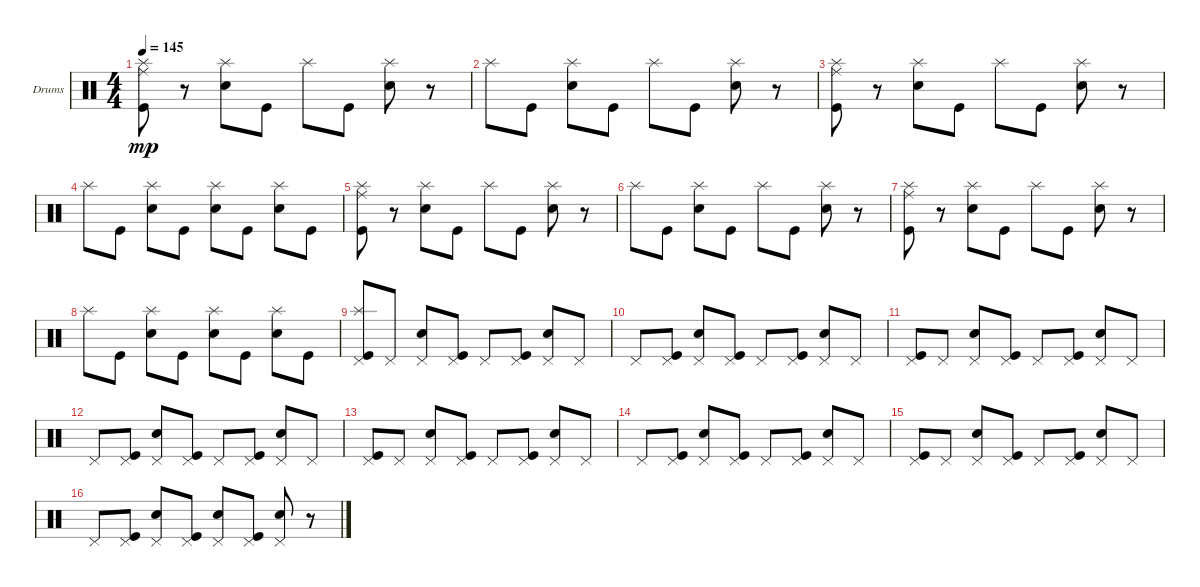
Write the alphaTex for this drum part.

\defaultSystemsLayout 4
\bracketExtendMode groupsimilarinstruments
\firstSystemTrackNameOrientation horizontal
\otherSystemsTrackNameOrientation horizontal
\track ("Drumkit" "Drums") {instrument percussion}
\staff {score}
\articulation defaults
\ts (4 4)
\tempo 145
\clef neutral
\ks c
("Kick (hit)" "Ride (middle)" "Splash (hit)").8{dy mp} r.8 ("Snare (hit) 2" "Splash (hit)").8 "Kick (hit)".8 "Splash (hit)".8 "Kick (hit)".8 ("Snare (hit) 2" "Splash (hit)").8 r.8 |
"Splash (hit)".8 "Kick (hit)".8 ("Snare (hit) 2" "Splash (hit)").8 "Kick (hit)".8 "Splash (hit)".8 "Kick (hit)".8 ("Snare (hit) 2" "Splash (hit)").8 r.8 |
("Kick (hit)" "Ride (middle)" "Splash (hit)").8 r.8 ("Snare (hit) 2" "Splash (hit)").8 "Kick (hit)".8 "Splash (hit)".8 "Kick (hit)".8 ("Snare (hit) 2" "Splash (hit)").8 r.8 |
"Splash (hit)".8 "Kick (hit)".8 ("Snare (hit) 2" "Splash (hit)").8 "Kick (hit)".8 ("Splash (hit)" "Snare (hit) 2").8 "Kick (hit)".8 ("Snare (hit) 2" "Splash (hit)").8 "Kick (hit)".8 |
("Kick (hit)" "Ride (middle)" "Splash (hit)").8 r.8 ("Snare (hit) 2" "Splash (hit)").8 "Kick (hit)".8 "Splash (hit)".8 "Kick (hit)".8 ("Snare (hit) 2" "Splash (hit)").8 r.8 |
"Splash (hit)".8 "Kick (hit)".8 ("Snare (hit) 2" "Splash (hit)").8 "Kick (hit)".8 "Splash (hit)".8 "Kick (hit)".8 ("Snare (hit) 2" "Splash (hit)").8 r.8 |
("Kick (hit)" "Ride (middle)" "Splash (hit)").8 r.8 ("Snare (hit) 2" "Splash (hit)").8 "Kick (hit)".8 "Splash (hit)".8 "Kick (hit)".8 ("Snare (hit) 2" "Splash (hit)").8 r.8 |
"Splash (hit)".8 "Kick (hit)".8 ("Snare (hit) 2" "Splash (hit)").8 "Kick (hit)".8 ("Splash (hit)" "Snare (hit) 2").8 "Kick (hit)".8 ("Snare (hit) 2" "Splash (hit)").8 "Kick (hit)".8 |
("Pedal Hi-Hat (hit)" "Kick (hit)" "Splash (hit)").8 "Pedal Hi-Hat (hit)".8 ("Pedal Hi-Hat (hit)" "Snare (hit) 2").8 ("Pedal Hi-Hat (hit)" "Kick (hit)").8 "Pedal Hi-Hat (hit)".8 ("Pedal Hi-Hat (hit)" "Kick (hit)").8 ("Pedal Hi-Hat (hit)" "Snare (hit) 2").8 "Pedal Hi-Hat (hit)".8 |
"Pedal Hi-Hat (hit)".8 ("Pedal Hi-Hat (hit)" "Kick (hit)").8 ("Pedal Hi-Hat (hit)" "Snare (hit) 2").8 ("Pedal Hi-Hat (hit)" "Kick (hit)").8 "Pedal Hi-Hat (hit)".8 ("Pedal Hi-Hat (hit)" "Kick (hit)").8 ("Pedal Hi-Hat (hit)" "Snare (hit) 2").8 "Pedal Hi-Hat (hit)".8 |
("Pedal Hi-Hat (hit)" "Kick (hit)").8 "Pedal Hi-Hat (hit)".8 ("Pedal Hi-Hat (hit)" "Snare (hit) 2").8 ("Pedal Hi-Hat (hit)" "Kick (hit)").8 "Pedal Hi-Hat (hit)".8 ("Pedal Hi-Hat (hit)" "Kick (hit)").8 ("Pedal Hi-Hat (hit)" "Snare (hit) 2").8 "Pedal Hi-Hat (hit)".8 |
"Pedal Hi-Hat (hit)".8 ("Pedal Hi-Hat (hit)" "Kick (hit)").8 ("Pedal Hi-Hat (hit)" "Snare (hit) 2").8 ("Pedal Hi-Hat (hit)" "Kick (hit)").8 "Pedal Hi-Hat (hit)".8 ("Pedal Hi-Hat (hit)" "Kick (hit)").8 ("Pedal Hi-Hat (hit)" "Snare (hit) 2").8 "Pedal Hi-Hat (hit)".8 |
("Pedal Hi-Hat (hit)" "Kick (hit)").8 "Pedal Hi-Hat (hit)".8 ("Pedal Hi-Hat (hit)" "Snare (hit) 2").8 ("Pedal Hi-Hat (hit)" "Kick (hit)").8 "Pedal Hi-Hat (hit)".8 ("Pedal Hi-Hat (hit)" "Kick (hit)").8 ("Pedal Hi-Hat (hit)" "Snare (hit) 2").8 "Pedal Hi-Hat (hit)".8 |
"Pedal Hi-Hat (hit)".8 ("Pedal Hi-Hat (hit)" "Kick (hit)").8 ("Pedal Hi-Hat (hit)" "Snare (hit) 2").8 ("Pedal Hi-Hat (hit)" "Kick (hit)").8 "Pedal Hi-Hat (hit)".8 ("Pedal Hi-Hat (hit)" "Kick (hit)").8 ("Pedal Hi-Hat (hit)" "Snare (hit) 2").8 "Pedal Hi-Hat (hit)".8 |
("Pedal Hi-Hat (hit)" "Kick (hit)").8 "Pedal Hi-Hat (hit)".8 ("Pedal Hi-Hat (hit)" "Snare (hit) 2").8 ("Pedal Hi-Hat (hit)" "Kick (hit)").8 "Pedal Hi-Hat (hit)".8 ("Pedal Hi-Hat (hit)" "Kick (hit)").8 ("Pedal Hi-Hat (hit)" "Snare (hit) 2").8 "Pedal Hi-Hat (hit)".8 |
"Pedal Hi-Hat (hit)".8 ("Pedal Hi-Hat (hit)" "Kick (hit)").8 ("Pedal Hi-Hat (hit)" "Snare (hit) 2").8 ("Pedal Hi-Hat (hit)" "Kick (hit)").8 ("Pedal Hi-Hat (hit)" "Snare (hit) 2").8 ("Pedal Hi-Hat (hit)" "Kick (hit)").8 ("Pedal Hi-Hat (hit)" "Snare (hit) 2").8 r.8
